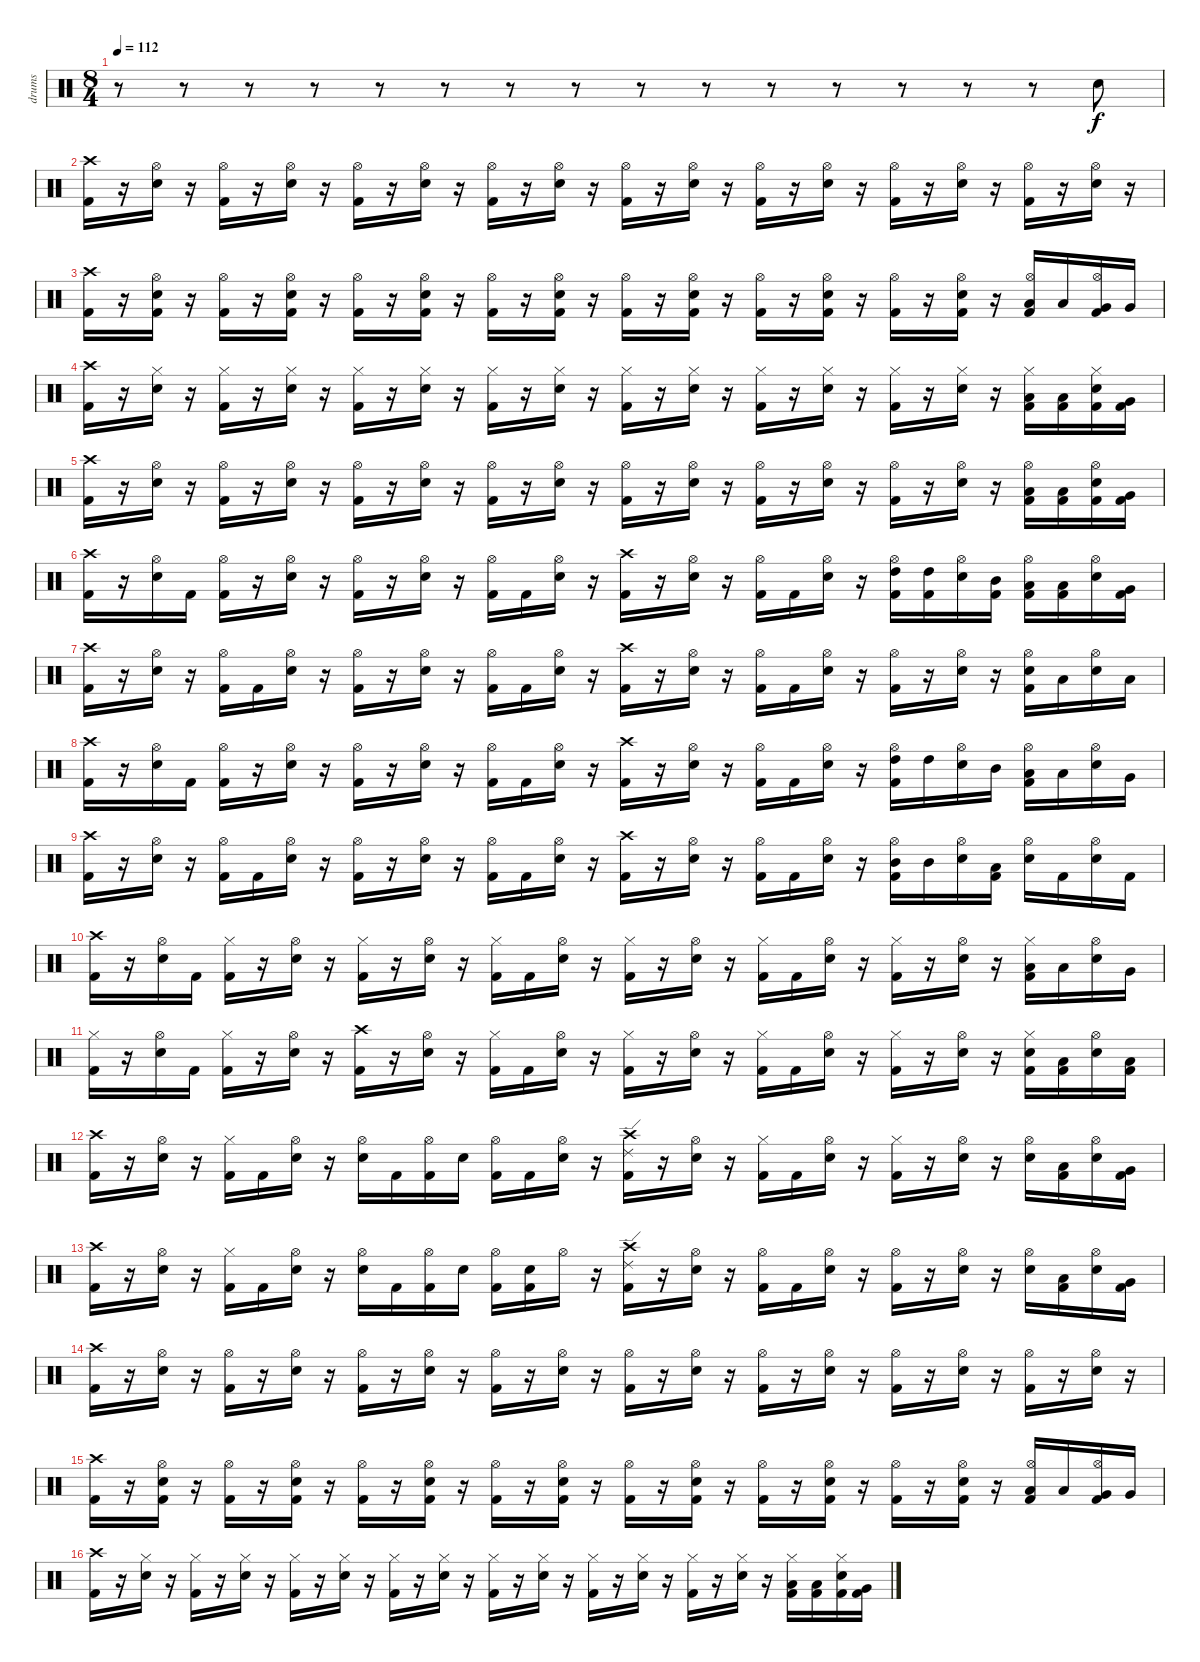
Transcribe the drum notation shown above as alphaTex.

\track ("drums" "drums") {instrument percussion}
\staff {score}
\articulation defaults
\ts (8 4)
\tempo 112
\clef neutral
\ks c
r.8{dy f} r.8 r.8 r.8 r.8 r.8 r.8 r.8 r.8 r.8 r.8 r.8 r.8 r.8 r.8 "Electric Snare (hit)".8 |
("Crash high (hit)" "Kick (hit) 2").16 r.16 ("Hi-Hat (open)" "Electric Snare (hit)").16 r.16 ("Hi-Hat (open)" "Kick (hit) 2").16 r.16 ("Hi-Hat (open)" "Electric Snare (hit)").16 r.16 ("Hi-Hat (open)" "Kick (hit) 2").16 r.16 ("Hi-Hat (open)" "Electric Snare (hit)").16 r.16 ("Hi-Hat (open)" "Kick (hit) 2").16 r.16 ("Hi-Hat (open)" "Electric Snare (hit)").16 r.16 ("Hi-Hat (open)" "Kick (hit) 2").16 r.16 ("Hi-Hat (open)" "Electric Snare (hit)").16 r.16 ("Hi-Hat (open)" "Kick (hit) 2").16 r.16 ("Hi-Hat (open)" "Electric Snare (hit)").16 r.16 ("Hi-Hat (open)" "Kick (hit) 2").16 r.16 ("Hi-Hat (open)" "Electric Snare (hit)").16 r.16 ("Hi-Hat (open)" "Kick (hit) 2").16 r.16 ("Hi-Hat (open)" "Electric Snare (hit)").16 r.16 |
("Crash high (hit)" "Kick (hit) 2").16 r.16 ("Hi-Hat (open)" "Electric Snare (hit)" "Kick (hit) 2").16 r.16 ("Hi-Hat (open)" "Kick (hit) 2").16 r.16 ("Hi-Hat (open)" "Electric Snare (hit)" "Kick (hit) 2").16 r.16 ("Hi-Hat (open)" "Kick (hit) 2").16 r.16 ("Hi-Hat (open)" "Electric Snare (hit)" "Kick (hit) 2").16 r.16 ("Hi-Hat (open)" "Kick (hit) 2").16 r.16 ("Hi-Hat (open)" "Electric Snare (hit)" "Kick (hit) 2").16 r.16 ("Hi-Hat (open)" "Kick (hit) 2").16 r.16 ("Hi-Hat (open)" "Electric Snare (hit)" "Kick (hit) 2").16 r.16 ("Hi-Hat (open)" "Kick (hit) 2").16 r.16 ("Hi-Hat (open)" "Electric Snare (hit)" "Kick (hit) 2").16 r.16 ("Hi-Hat (open)" "Kick (hit) 2").16 r.16 ("Hi-Hat (open)" "Electric Snare (hit)" "Kick (hit) 2").16 r.16 ("Hi-Hat (open)" "Low Tom (hit)" "Kick (hit) 2").16 "Low Tom (hit)".16 ("Hi-Hat (open)" "Very Low Tom (hit)" "Kick (hit) 2").16 "Very Low Tom (hit)".16 |
("Crash high (hit)" "Kick (hit) 2").16 r.16 ("Hi-Hat (closed)" "Electric Snare (hit)").16 r.16 ("Hi-Hat (closed)" "Kick (hit) 2").16 r.16 ("Hi-Hat (closed)" "Electric Snare (hit)").16 r.16 ("Hi-Hat (closed)" "Kick (hit) 2").16 r.16 ("Hi-Hat (closed)" "Electric Snare (hit)").16 r.16 ("Hi-Hat (closed)" "Kick (hit) 2").16 r.16 ("Hi-Hat (closed)" "Electric Snare (hit)").16 r.16 ("Hi-Hat (closed)" "Kick (hit) 2").16 r.16 ("Hi-Hat (closed)" "Electric Snare (hit)").16 r.16 ("Hi-Hat (closed)" "Kick (hit) 2").16 r.16 ("Hi-Hat (closed)" "Electric Snare (hit)").16 r.16 ("Hi-Hat (closed)" "Kick (hit) 2").16 r.16 ("Hi-Hat (closed)" "Electric Snare (hit)").16 r.16 ("Hi-Hat (closed)" "Low Tom (hit)" "Kick (hit) 2").16 ("Low Tom (hit)" "Kick (hit) 2").16 ("Hi-Hat (closed)" "Electric Snare (hit)" "Kick (hit) 2").16 ("Very Low Tom (hit)" "Kick (hit) 2").16 |
("Crash high (hit)" "Kick (hit) 2").16 r.16 ("Hi-Hat (open)" "Electric Snare (hit)").16 r.16 ("Hi-Hat (open)" "Kick (hit) 2").16 r.16 ("Hi-Hat (open)" "Electric Snare (hit)").16 r.16 ("Hi-Hat (open)" "Kick (hit) 2").16 r.16 ("Hi-Hat (open)" "Electric Snare (hit)").16 r.16 ("Hi-Hat (open)" "Kick (hit) 2").16 r.16 ("Hi-Hat (open)" "Electric Snare (hit)").16 r.16 ("Hi-Hat (open)" "Kick (hit) 2").16 r.16 ("Hi-Hat (open)" "Electric Snare (hit)").16 r.16 ("Hi-Hat (open)" "Kick (hit) 2").16 r.16 ("Hi-Hat (open)" "Electric Snare (hit)").16 r.16 ("Hi-Hat (open)" "Kick (hit) 2").16 r.16 ("Hi-Hat (open)" "Electric Snare (hit)").16 r.16 ("Hi-Hat (open)" "Low Tom (hit)" "Kick (hit) 2").16 ("Low Tom (hit)" "Kick (hit) 2").16 ("Hi-Hat (open)" "Electric Snare (hit)" "Kick (hit) 2").16 ("Very Low Tom (hit)" "Kick (hit) 2").16 |
("Crash high (hit)" "Kick (hit) 2").16 r.16 ("Hi-Hat (open)" "Electric Snare (hit)").16 "Kick (hit) 2".16 ("Hi-Hat (open)" "Kick (hit) 2").16 r.16 ("Hi-Hat (open)" "Electric Snare (hit)").16 r.16 ("Hi-Hat (open)" "Kick (hit) 2").16 r.16 ("Hi-Hat (open)" "Electric Snare (hit)").16 r.16 ("Hi-Hat (open)" "Kick (hit) 2").16 "Kick (hit) 2".16 ("Hi-Hat (open)" "Electric Snare (hit)").16 r.16 ("Crash high (hit)" "Kick (hit) 2").16 r.16 ("Hi-Hat (open)" "Electric Snare (hit)").16 r.16 ("Hi-Hat (open)" "Kick (hit) 2").16 "Kick (hit) 2".16 ("Hi-Hat (open)" "Electric Snare (hit)").16 r.16 ("Hi-Hat (open)" "High Tom (hit)" "Kick (hit) 2").16 ("High Tom (hit)" "Kick (hit) 2").16 ("Hi-Hat (open)" "Electric Snare (hit)").16 ("Mid Tom (hit)" "Kick (hit) 2").16 ("Hi-Hat (open)" "Low Tom (hit)" "Kick (hit) 2").16 ("Low Tom (hit)" "Kick (hit) 2").16 ("Hi-Hat (open)" "Electric Snare (hit)").16 ("Very Low Tom (hit)" "Kick (hit) 2").16 |
("Crash high (hit)" "Kick (hit) 2").16 r.16 ("Hi-Hat (open)" "Electric Snare (hit)").16 r.16 ("Hi-Hat (open)" "Kick (hit) 2").16 "Kick (hit) 2".16 ("Hi-Hat (open)" "Electric Snare (hit)").16 r.16 ("Hi-Hat (open)" "Kick (hit) 2").16 r.16 ("Hi-Hat (open)" "Electric Snare (hit)").16 r.16 ("Hi-Hat (open)" "Kick (hit) 2").16 "Kick (hit) 2".16 ("Hi-Hat (open)" "Electric Snare (hit)").16 r.16 ("Crash high (hit)" "Kick (hit) 2").16 r.16 ("Hi-Hat (open)" "Electric Snare (hit)").16 r.16 ("Hi-Hat (open)" "Kick (hit) 2").16 "Kick (hit) 2".16 ("Hi-Hat (open)" "Electric Snare (hit)").16 r.16 ("Hi-Hat (open)" "Kick (hit) 2").16 r.16 ("Hi-Hat (open)" "Electric Snare (hit)").16 r.16 ("Hi-Hat (open)" "Electric Snare (hit)" "Kick (hit) 2").16 "Low Tom (hit)".16 ("Hi-Hat (open)" "Electric Snare (hit)").16 "Low Tom (hit)".16 |
("Crash high (hit)" "Kick (hit) 2").16 r.16 ("Hi-Hat (open)" "Electric Snare (hit)").16 "Kick (hit) 2".16 ("Hi-Hat (open)" "Kick (hit) 2").16 r.16 ("Hi-Hat (open)" "Electric Snare (hit)").16 r.16 ("Hi-Hat (open)" "Kick (hit) 2").16 r.16 ("Hi-Hat (open)" "Electric Snare (hit)").16 r.16 ("Hi-Hat (open)" "Kick (hit) 2").16 "Kick (hit) 2".16 ("Hi-Hat (open)" "Electric Snare (hit)").16 r.16 ("Crash high (hit)" "Kick (hit) 2").16 r.16 ("Hi-Hat (open)" "Electric Snare (hit)").16 r.16 ("Hi-Hat (open)" "Kick (hit) 2").16 "Kick (hit) 2".16 ("Hi-Hat (open)" "Electric Snare (hit)").16 r.16 ("Hi-Hat (open)" "High Tom (hit)" "Kick (hit) 2").16 "High Tom (hit)".16 ("Hi-Hat (open)" "Electric Snare (hit)").16 "Mid Tom (hit)".16 ("Hi-Hat (open)" "Low Tom (hit)" "Kick (hit) 2").16 "Low Tom (hit)".16 ("Hi-Hat (open)" "Electric Snare (hit)").16 "Very Low Tom (hit)".16 |
("Crash high (hit)" "Kick (hit) 2").16 r.16 ("Hi-Hat (open)" "Electric Snare (hit)").16 r.16 ("Hi-Hat (open)" "Kick (hit) 2").16 "Kick (hit) 2".16 ("Hi-Hat (open)" "Electric Snare (hit)").16 r.16 ("Hi-Hat (open)" "Kick (hit) 2").16 r.16 ("Hi-Hat (open)" "Electric Snare (hit)").16 r.16 ("Hi-Hat (open)" "Kick (hit) 2").16 "Kick (hit) 2".16 ("Hi-Hat (open)" "Electric Snare (hit)").16 r.16 ("Crash high (hit)" "Kick (hit) 2").16 r.16 ("Hi-Hat (open)" "Electric Snare (hit)").16 r.16 ("Hi-Hat (open)" "Kick (hit) 2").16 "Kick (hit) 2".16 ("Hi-Hat (open)" "Electric Snare (hit)").16 r.16 ("Hi-Hat (open)" "Mid Tom (hit)" "Kick (hit) 2").16 "Mid Tom (hit)".16 ("Hi-Hat (open)" "Electric Snare (hit)").16 ("Low Tom (hit)" "Kick (hit) 2").16 ("Hi-Hat (open)" "Electric Snare (hit)").16 "Kick (hit) 2".16 ("Hi-Hat (open)" "Electric Snare (hit)").16 "Kick (hit) 2".16 |
("Crash high (hit)" "Kick (hit) 2").16 r.16 ("Hi-Hat (open)" "Electric Snare (hit)").16 "Kick (hit) 2".16 ("Hi-Hat (closed)" "Kick (hit) 2").16 r.16 ("Hi-Hat (open)" "Electric Snare (hit)").16 r.16 ("Hi-Hat (closed)" "Kick (hit) 2").16 r.16 ("Hi-Hat (open)" "Electric Snare (hit)").16 r.16 ("Hi-Hat (closed)" "Kick (hit) 2").16 "Kick (hit) 2".16 ("Hi-Hat (open)" "Electric Snare (hit)").16 r.16 ("Hi-Hat (closed)" "Kick (hit) 2").16 r.16 ("Hi-Hat (open)" "Electric Snare (hit)").16 r.16 ("Hi-Hat (closed)" "Kick (hit) 2").16 "Kick (hit) 2".16 ("Hi-Hat (open)" "Electric Snare (hit)").16 r.16 ("Hi-Hat (closed)" "Kick (hit) 2").16 r.16 ("Hi-Hat (open)" "Electric Snare (hit)").16 r.16 ("Hi-Hat (closed)" "Low Tom (hit)" "Kick (hit) 2").16 "Low Tom (hit)".16 ("Hi-Hat (open)" "Electric Snare (hit)").16 "Very Low Tom (hit)".16 |
("Hi-Hat (closed)" "Kick (hit) 2").16 r.16 ("Hi-Hat (open)" "Electric Snare (hit)").16 "Kick (hit) 2".16 ("Hi-Hat (closed)" "Kick (hit) 2").16 r.16 ("Hi-Hat (open)" "Electric Snare (hit)").16 r.16 ("Crash high (hit)" "Kick (hit) 2").16 r.16 ("Hi-Hat (open)" "Electric Snare (hit)").16 r.16 ("Hi-Hat (closed)" "Kick (hit) 2").16 "Kick (hit) 2".16 ("Hi-Hat (open)" "Electric Snare (hit)").16 r.16 ("Hi-Hat (closed)" "Kick (hit) 2").16 r.16 ("Hi-Hat (open)" "Electric Snare (hit)").16 r.16 ("Hi-Hat (closed)" "Kick (hit) 2").16 "Kick (hit) 2".16 ("Hi-Hat (open)" "Electric Snare (hit)").16 r.16 ("Hi-Hat (closed)" "Kick (hit) 2").16 r.16 ("Hi-Hat (open)" "Electric Snare (hit)").16 r.16 ("Hi-Hat (closed)" "Electric Snare (hit)" "Kick (hit) 2").16 ("Low Tom (hit)" "Kick (hit) 2").16 ("Hi-Hat (open)" "Electric Snare (hit)").16 ("Low Tom (hit)" "Kick (hit) 2").16 |
("Crash high (hit)" "Kick (hit) 2").16 r.16 ("Hi-Hat (open)" "Electric Snare (hit)").16 r.16 ("Hi-Hat (closed)" "Kick (hit) 2").16 "Kick (hit) 2".16 ("Hi-Hat (open)" "Electric Snare (hit)").16 r.16 ("Hi-Hat (open)" "Electric Snare (hit)").16 "Kick (hit) 2".16 ("Hi-Hat (open)" "Kick (hit) 2").16 "Electric Snare (hit)".16 ("Hi-Hat (open)" "Kick (hit) 2").16 "Kick (hit) 2".16 ("Hi-Hat (open)" "Electric Snare (hit)").16 r.16 ("Crash high (hit)" "Ride (edge) 2" "Kick (hit) 2").16 r.16 ("Hi-Hat (open)" "Electric Snare (hit)").16 r.16 ("Hi-Hat (closed)" "Kick (hit) 2").16 "Kick (hit) 2".16 ("Hi-Hat (open)" "Electric Snare (hit)").16 r.16 ("Hi-Hat (closed)" "Kick (hit) 2").16 r.16 ("Hi-Hat (open)" "Electric Snare (hit)").16 r.16 ("Hi-Hat (open)" "Electric Snare (hit)").16 ("Low Tom (hit)" "Kick (hit) 2").16 ("Hi-Hat (open)" "Electric Snare (hit)").16 ("Very Low Tom (hit)" "Kick (hit) 2").16 |
("Crash high (hit)" "Kick (hit) 2").16 r.16 ("Hi-Hat (open)" "Electric Snare (hit)").16 r.16 ("Hi-Hat (closed)" "Kick (hit) 2").16 "Kick (hit) 2".16 ("Hi-Hat (open)" "Electric Snare (hit)").16 r.16 ("Hi-Hat (open)" "Electric Snare (hit)").16 "Kick (hit) 2".16 ("Hi-Hat (open)" "Kick (hit) 2").16 "Electric Snare (hit)".16 ("Hi-Hat (open)" "Kick (hit) 2").16 ("Electric Snare (hit)" "Kick (hit) 2").16 "Hi-Hat (open)".16 r.16 ("Crash high (hit)" "Ride (edge) 2" "Kick (hit) 2").16 r.16 ("Hi-Hat (open)" "Electric Snare (hit)").16 r.16 ("Hi-Hat (open)" "Kick (hit) 2").16 "Kick (hit) 2".16 ("Hi-Hat (open)" "Electric Snare (hit)").16 r.16 ("Hi-Hat (open)" "Kick (hit) 2").16 r.16 ("Hi-Hat (open)" "Electric Snare (hit)").16 r.16 ("Hi-Hat (open)" "Electric Snare (hit)").16 ("Low Tom (hit)" "Kick (hit) 2").16 ("Hi-Hat (open)" "Electric Snare (hit)").16 ("Very Low Tom (hit)" "Kick (hit) 2").16 |
("Crash high (hit)" "Kick (hit) 2").16 r.16 ("Hi-Hat (open)" "Electric Snare (hit)").16 r.16 ("Hi-Hat (open)" "Kick (hit) 2").16 r.16 ("Hi-Hat (open)" "Electric Snare (hit)").16 r.16 ("Hi-Hat (open)" "Kick (hit) 2").16 r.16 ("Hi-Hat (open)" "Electric Snare (hit)").16 r.16 ("Hi-Hat (open)" "Kick (hit) 2").16 r.16 ("Hi-Hat (open)" "Electric Snare (hit)").16 r.16 ("Hi-Hat (open)" "Kick (hit) 2").16 r.16 ("Hi-Hat (open)" "Electric Snare (hit)").16 r.16 ("Hi-Hat (open)" "Kick (hit) 2").16 r.16 ("Hi-Hat (open)" "Electric Snare (hit)").16 r.16 ("Hi-Hat (open)" "Kick (hit) 2").16 r.16 ("Hi-Hat (open)" "Electric Snare (hit)").16 r.16 ("Hi-Hat (open)" "Kick (hit) 2").16 r.16 ("Hi-Hat (open)" "Electric Snare (hit)").16 r.16 |
("Crash high (hit)" "Kick (hit) 2").16 r.16 ("Hi-Hat (open)" "Electric Snare (hit)" "Kick (hit) 2").16 r.16 ("Hi-Hat (open)" "Kick (hit) 2").16 r.16 ("Hi-Hat (open)" "Electric Snare (hit)" "Kick (hit) 2").16 r.16 ("Hi-Hat (open)" "Kick (hit) 2").16 r.16 ("Hi-Hat (open)" "Electric Snare (hit)" "Kick (hit) 2").16 r.16 ("Hi-Hat (open)" "Kick (hit) 2").16 r.16 ("Hi-Hat (open)" "Electric Snare (hit)" "Kick (hit) 2").16 r.16 ("Hi-Hat (open)" "Kick (hit) 2").16 r.16 ("Hi-Hat (open)" "Electric Snare (hit)" "Kick (hit) 2").16 r.16 ("Hi-Hat (open)" "Kick (hit) 2").16 r.16 ("Hi-Hat (open)" "Electric Snare (hit)" "Kick (hit) 2").16 r.16 ("Hi-Hat (open)" "Kick (hit) 2").16 r.16 ("Hi-Hat (open)" "Electric Snare (hit)" "Kick (hit) 2").16 r.16 ("Hi-Hat (open)" "Low Tom (hit)" "Kick (hit) 2").16 "Low Tom (hit)".16 ("Hi-Hat (open)" "Very Low Tom (hit)" "Kick (hit) 2").16 "Very Low Tom (hit)".16 |
("Crash high (hit)" "Kick (hit) 2").16 r.16 ("Hi-Hat (closed)" "Electric Snare (hit)").16 r.16 ("Hi-Hat (closed)" "Kick (hit) 2").16 r.16 ("Hi-Hat (closed)" "Electric Snare (hit)").16 r.16 ("Hi-Hat (closed)" "Kick (hit) 2").16 r.16 ("Hi-Hat (closed)" "Electric Snare (hit)").16 r.16 ("Hi-Hat (closed)" "Kick (hit) 2").16 r.16 ("Hi-Hat (closed)" "Electric Snare (hit)").16 r.16 ("Hi-Hat (closed)" "Kick (hit) 2").16 r.16 ("Hi-Hat (closed)" "Electric Snare (hit)").16 r.16 ("Hi-Hat (closed)" "Kick (hit) 2").16 r.16 ("Hi-Hat (closed)" "Electric Snare (hit)").16 r.16 ("Hi-Hat (closed)" "Kick (hit) 2").16 r.16 ("Hi-Hat (closed)" "Electric Snare (hit)").16 r.16 ("Hi-Hat (closed)" "Low Tom (hit)" "Kick (hit) 2").16 ("Low Tom (hit)" "Kick (hit) 2").16 ("Hi-Hat (closed)" "Electric Snare (hit)" "Kick (hit) 2").16 ("Very Low Tom (hit)" "Kick (hit) 2").16
